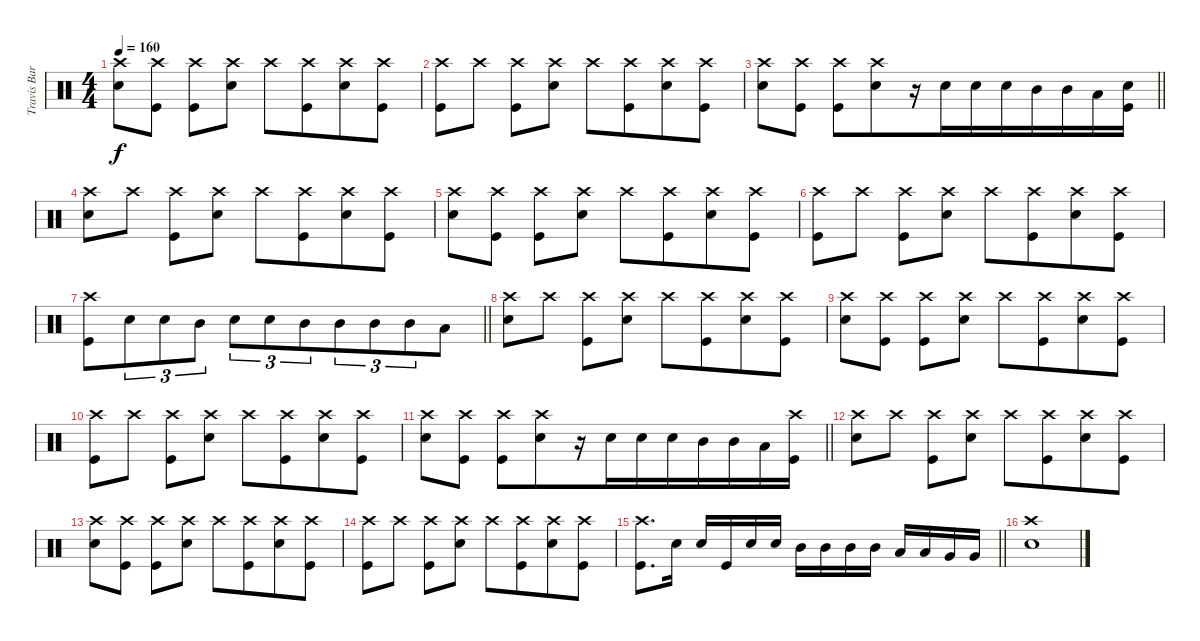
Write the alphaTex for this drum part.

\track ("Travis Barker Drums" "Travis Bar") {instrument percussion}
\staff {score}
\articulation defaults
\ts (4 4)
\tempo 160
\clef neutral
\ks c
("Snare (hit) 2" "Crash high (hit)").8{dy f beam merge} ("Kick (hit)" "Crash high (hit)").8 ("Kick (hit)" "Crash high (hit)").8 ("Snare (hit) 2" "Crash high (hit)").8 "Crash high (hit)".8{beam merge} ("Kick (hit)" "Crash high (hit)").8{beam merge} ("Snare (hit) 2" "Crash high (hit)").8{beam merge} ("Kick (hit)" "Crash high (hit)").8 |
("Kick (hit)" "Crash high (hit)").8{beam merge} "Crash high (hit)".8 ("Kick (hit)" "Crash high (hit)").8 ("Snare (hit) 2" "Crash high (hit)").8 "Crash high (hit)".8{beam merge} ("Kick (hit)" "Crash high (hit)").8{beam merge} ("Snare (hit) 2" "Crash high (hit)").8{beam merge} ("Kick (hit)" "Crash high (hit)").8 |
\barLineRight lightlight
("Snare (hit) 2" "Crash high (hit)").8{beam merge} ("Kick (hit)" "Crash high (hit)").8 ("Kick (hit)" "Crash high (hit)").8 ("Snare (hit) 2" "Crash high (hit)").8{beam merge} r.16 "Snare (hit) 2".16{beam merge} "Snare (hit) 2".16{beam merge} "Snare (hit) 2".16{beam merge} "Mid Tom (hit)".16{beam merge} "Mid Tom (hit)".16{beam merge} "Low Tom (hit)".16 ("Kick (hit)" "Snare (hit)").16 |
("Snare (hit) 2" "Crash high (hit)").8{beam merge} "Crash high (hit)".8 ("Kick (hit)" "Crash high (hit)").8 ("Snare (hit) 2" "Crash high (hit)").8 "Crash high (hit)".8{beam merge} ("Kick (hit)" "Crash high (hit)").8{beam merge} ("Snare (hit) 2" "Crash high (hit)").8{beam merge} ("Kick (hit)" "Crash high (hit)").8 |
("Snare (hit) 2" "Crash high (hit)").8{beam merge} ("Kick (hit)" "Crash high (hit)").8 ("Kick (hit)" "Crash high (hit)").8 ("Snare (hit) 2" "Crash high (hit)").8 "Crash high (hit)".8{beam merge} ("Kick (hit)" "Crash high (hit)").8{beam merge} ("Snare (hit) 2" "Crash high (hit)").8{beam merge} ("Kick (hit)" "Crash high (hit)").8 |
("Kick (hit)" "Crash high (hit)").8{beam merge} "Crash high (hit)".8 ("Kick (hit)" "Crash high (hit)").8 ("Snare (hit) 2" "Crash high (hit)").8 "Crash high (hit)".8{beam merge} ("Kick (hit)" "Crash high (hit)").8{beam merge} ("Snare (hit) 2" "Crash high (hit)").8{beam merge} ("Kick (hit)" "Crash high (hit)").8 |
\barLineRight lightlight
("Kick (hit)" "Crash high (hit)").8{beam merge} "Snare (hit) 2".8{tu (3 2) beam merge} "Snare (hit) 2".8{tu (3 2)} "Mid Tom (hit)".8{tu (3 2)} "Snare (hit) 2".8{tu (3 2)} "Snare (hit) 2".8{tu (3 2) beam merge} "Mid Tom (hit)".8{tu (3 2) beam merge} "Mid Tom (hit)".8{tu (3 2)} "Mid Tom (hit)".8{tu (3 2) beam merge} "Mid Tom (hit)".8{tu (3 2) beam merge} "Low Tom (hit)".8 |
("Snare (hit) 2" "Crash high (hit)").8{beam merge} "Crash high (hit)".8 ("Kick (hit)" "Crash high (hit)").8 ("Snare (hit) 2" "Crash high (hit)").8 "Crash high (hit)".8{beam merge} ("Kick (hit)" "Crash high (hit)").8{beam merge} ("Snare (hit) 2" "Crash high (hit)").8{beam merge} ("Kick (hit)" "Crash high (hit)").8 |
("Snare (hit) 2" "Crash high (hit)").8{beam merge} ("Kick (hit)" "Crash high (hit)").8 ("Kick (hit)" "Crash high (hit)").8 ("Snare (hit) 2" "Crash high (hit)").8 "Crash high (hit)".8{beam merge} ("Kick (hit)" "Crash high (hit)").8{beam merge} ("Snare (hit) 2" "Crash high (hit)").8{beam merge} ("Kick (hit)" "Crash high (hit)").8 |
("Kick (hit)" "Crash high (hit)").8{beam merge} "Crash high (hit)".8 ("Kick (hit)" "Crash high (hit)").8 ("Snare (hit) 2" "Crash high (hit)").8 "Crash high (hit)".8{beam merge} ("Kick (hit)" "Crash high (hit)").8{beam merge} ("Snare (hit) 2" "Crash high (hit)").8{beam merge} ("Kick (hit)" "Crash high (hit)").8 |
\barLineRight lightlight
("Snare (hit) 2" "Crash high (hit)").8{beam merge} ("Kick (hit)" "Crash high (hit)").8 ("Kick (hit)" "Crash high (hit)").8 ("Snare (hit) 2" "Crash high (hit)").8{beam merge} r.16 "Snare (hit) 2".16{beam merge} "Snare (hit) 2".16{beam merge} "Snare (hit) 2".16{beam merge} "Mid Tom (hit)".16{beam merge} "Mid Tom (hit)".16{beam merge} "Low Tom (hit)".16 ("Kick (hit)" "Crash high (hit)").16 |
("Snare (hit) 2" "Crash high (hit)").8{beam merge} "Crash high (hit)".8 ("Kick (hit)" "Crash high (hit)").8 ("Snare (hit) 2" "Crash high (hit)").8 "Crash high (hit)".8{beam merge} ("Kick (hit)" "Crash high (hit)").8{beam merge} ("Snare (hit) 2" "Crash high (hit)").8{beam merge} ("Kick (hit)" "Crash high (hit)").8 |
("Snare (hit) 2" "Crash high (hit)").8{beam merge} ("Kick (hit)" "Crash high (hit)").8 ("Kick (hit)" "Crash high (hit)").8 ("Snare (hit) 2" "Crash high (hit)").8 "Crash high (hit)".8{beam merge} ("Kick (hit)" "Crash high (hit)").8{beam merge} ("Snare (hit) 2" "Crash high (hit)").8{beam merge} ("Kick (hit)" "Crash high (hit)").8 |
("Kick (hit)" "Crash high (hit)").8{beam merge} "Crash high (hit)".8 ("Kick (hit)" "Crash high (hit)").8 ("Snare (hit) 2" "Crash high (hit)").8 "Crash high (hit)".8{beam merge} ("Kick (hit)" "Crash high (hit)").8{beam merge} ("Snare (hit) 2" "Crash high (hit)").8{beam merge} ("Kick (hit)" "Crash high (hit)").8 |
\barLineRight lightlight
("Kick (hit)" "Crash high (hit)").8{d} "Snare (hit) 2".16 "Snare (hit) 2".16{beam merge} "Kick (hit)".16 "Snare (hit) 2".16 "Snare (hit) 2".16 "Mid Tom (hit)".16 "Mid Tom (hit)".16 "Mid Tom (hit)".16{beam merge} "Mid Tom (hit)".16 "Low Tom (hit)".16{beam merge} "Low Tom (hit)".16 "Very Low Tom (hit)".16 "Very Low Tom (hit)".16 |
("Snare (hit) 2" "Crash high (hit)").1
